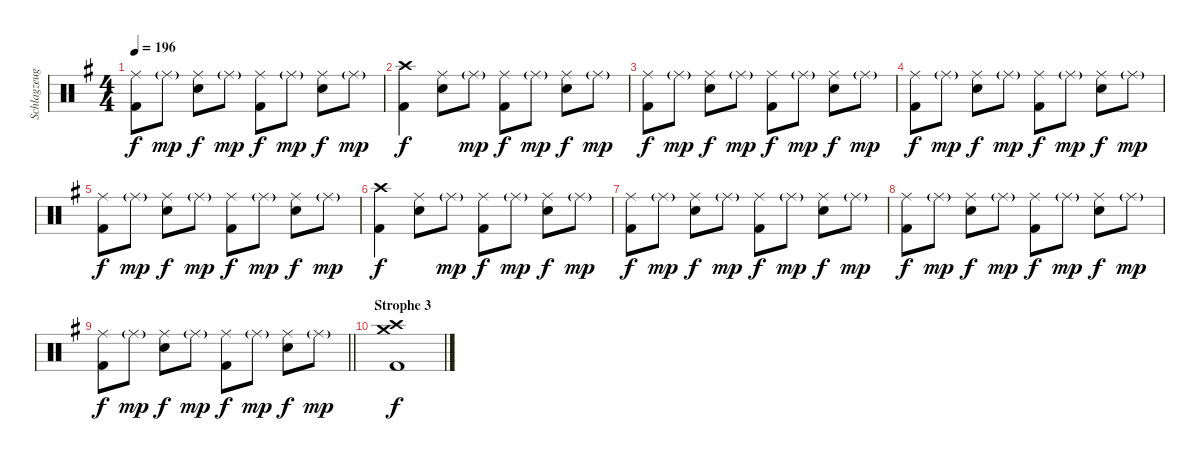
\track ("Schlagzeug" "Schlagzeug") {instrument percussion}
\staff {score}
\articulation defaults
\ts (4 4)
\tempo 196
\clef neutral
\ks g
("Ride (middle)" "Kick (hit) 2").8{dy f} "Ride (middle)"{g}.8{dy mp} ("Ride (middle)" "Snare (hit) 2").8{dy f} "Ride (middle)"{g}.8{dy mp} ("Ride (middle)" "Kick (hit) 2").8{dy f} "Ride (middle)"{g}.8{dy mp} ("Ride (middle)" "Snare (hit) 2").8{dy f} "Ride (middle)"{g}.8{dy mp} |
("Crash high (hit)" "Kick (hit) 2").4{dy f} ("Ride (middle)" "Snare (hit) 2").8 "Ride (middle)"{g}.8{dy mp} ("Ride (middle)" "Kick (hit) 2").8{dy f} "Ride (middle)"{g}.8{dy mp} ("Ride (middle)" "Snare (hit) 2").8{dy f} "Ride (middle)"{g}.8{dy mp} |
("Ride (middle)" "Kick (hit) 2").8{dy f} "Ride (middle)"{g}.8{dy mp} ("Ride (middle)" "Snare (hit) 2").8{dy f} "Ride (middle)"{g}.8{dy mp} ("Ride (middle)" "Kick (hit) 2").8{dy f} "Ride (middle)"{g}.8{dy mp} ("Ride (middle)" "Snare (hit) 2").8{dy f} "Ride (middle)"{g}.8{dy mp} |
("Ride (middle)" "Kick (hit) 2").8{dy f} "Ride (middle)"{g}.8{dy mp} ("Ride (middle)" "Snare (hit) 2").8{dy f} "Ride (middle)"{g}.8{dy mp} ("Ride (middle)" "Kick (hit) 2").8{dy f} "Ride (middle)"{g}.8{dy mp} ("Ride (middle)" "Snare (hit) 2").8{dy f} "Ride (middle)"{g}.8{dy mp} |
("Ride (middle)" "Kick (hit) 2").8{dy f} "Ride (middle)"{g}.8{dy mp} ("Ride (middle)" "Snare (hit) 2").8{dy f} "Ride (middle)"{g}.8{dy mp} ("Ride (middle)" "Kick (hit) 2").8{dy f} "Ride (middle)"{g}.8{dy mp} ("Ride (middle)" "Snare (hit) 2").8{dy f} "Ride (middle)"{g}.8{dy mp} |
("Crash high (hit)" "Kick (hit) 2").4{dy f} ("Ride (middle)" "Snare (hit) 2").8 "Ride (middle)"{g}.8{dy mp} ("Ride (middle)" "Kick (hit) 2").8{dy f} "Ride (middle)"{g}.8{dy mp} ("Ride (middle)" "Snare (hit) 2").8{dy f} "Ride (middle)"{g}.8{dy mp} |
("Ride (middle)" "Kick (hit) 2").8{dy f} "Ride (middle)"{g}.8{dy mp} ("Ride (middle)" "Snare (hit) 2").8{dy f} "Ride (middle)"{g}.8{dy mp} ("Ride (middle)" "Kick (hit) 2").8{dy f} "Ride (middle)"{g}.8{dy mp} ("Ride (middle)" "Snare (hit) 2").8{dy f} "Ride (middle)"{g}.8{dy mp} |
("Ride (middle)" "Kick (hit) 2").8{dy f} "Ride (middle)"{g}.8{dy mp} ("Ride (middle)" "Snare (hit) 2").8{dy f} "Ride (middle)"{g}.8{dy mp} ("Ride (middle)" "Kick (hit) 2").8{dy f} "Ride (middle)"{g}.8{dy mp} ("Ride (middle)" "Snare (hit) 2").8{dy f} "Ride (middle)"{g}.8{dy mp} |
\barLineRight lightlight
("Ride (middle)" "Kick (hit) 2").8{dy f} "Ride (middle)"{g}.8{dy mp} ("Ride (middle)" "Snare (hit) 2").8{dy f} "Ride (middle)"{g}.8{dy mp} ("Ride (middle)" "Kick (hit) 2").8{dy f} "Ride (middle)"{g}.8{dy mp} ("Ride (middle)" "Snare (hit) 2").8{dy f} "Ride (middle)"{g}.8{dy mp} |
\section ("" "Strophe 3")
("Crash high (hit)" "Crash medium (hit)" "Kick (hit) 2").1{dy f}
